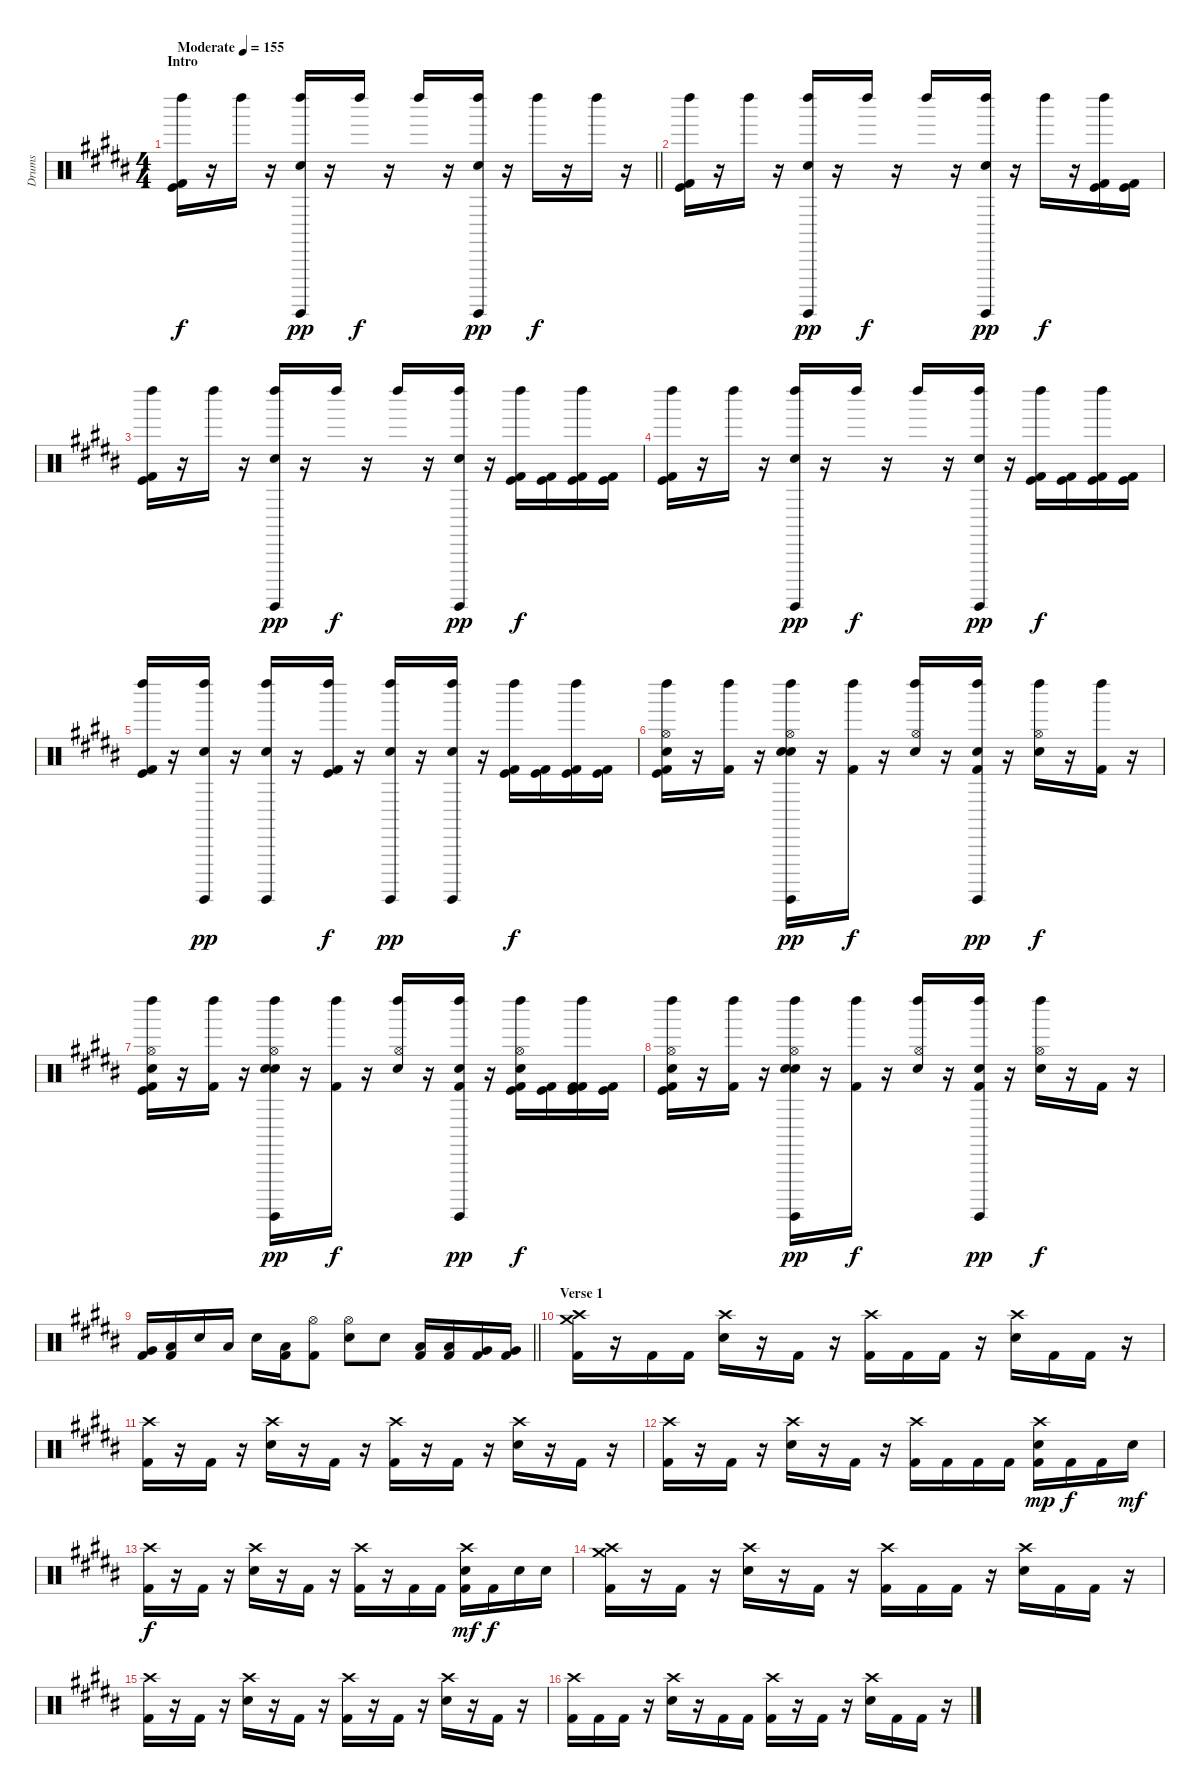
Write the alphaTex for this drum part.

\track ("Drums" "Drums") {instrument percussion}
\staff {score}
\articulation defaults
\ts (4 4)
\section ("" "Intro")
\tempo (155 "Moderate")
\clef neutral
\barLineRight lightlight
\ks g#minor
("Left Maraca (hit)" "Kick (hit)" "Kick (hit) 2").16{dy f} r.16 "Left Maraca (hit)".16 r.16 ("Snare (hit) 2" "Surdo (hit)" "Left Maraca (hit)").16{dy pp} r.16 "Left Maraca (hit)".16{dy f} r.16 "Left Maraca (hit)".16 r.16 ("Snare (hit) 2" "Surdo (hit)" "Left Maraca (hit)").16{dy pp} r.16 "Left Maraca (hit)".16{dy f} r.16 "Left Maraca (hit)".16 r.16 |
("Left Maraca (hit)" "Kick (hit)" "Kick (hit) 2").16 r.16 "Left Maraca (hit)".16 r.16 ("Snare (hit) 2" "Surdo (hit)" "Left Maraca (hit)").16{dy pp} r.16 "Left Maraca (hit)".16{dy f} r.16 "Left Maraca (hit)".16 r.16 ("Snare (hit) 2" "Surdo (hit)" "Left Maraca (hit)").16{dy pp} r.16 "Left Maraca (hit)".16{dy f} r.16 ("Left Maraca (hit)" "Kick (hit)" "Kick (hit) 2").16 ("Kick (hit)" "Kick (hit) 2").16 |
("Left Maraca (hit)" "Kick (hit)" "Kick (hit) 2").16 r.16 "Left Maraca (hit)".16 r.16 ("Snare (hit) 2" "Surdo (hit)" "Left Maraca (hit)").16{dy pp} r.16 "Left Maraca (hit)".16{dy f} r.16 "Left Maraca (hit)".16 r.16 ("Snare (hit) 2" "Surdo (hit)" "Left Maraca (hit)").16{dy pp} r.16 ("Left Maraca (hit)" "Kick (hit)" "Kick (hit) 2").16{dy f} ("Kick (hit)" "Kick (hit) 2").16 ("Left Maraca (hit)" "Kick (hit)" "Kick (hit) 2").16 ("Kick (hit)" "Kick (hit) 2").16 |
("Left Maraca (hit)" "Kick (hit)" "Kick (hit) 2").16 r.16 "Left Maraca (hit)".16 r.16 ("Snare (hit) 2" "Surdo (hit)" "Left Maraca (hit)").16{dy pp} r.16 "Left Maraca (hit)".16{dy f} r.16 "Left Maraca (hit)".16 r.16 ("Snare (hit) 2" "Surdo (hit)" "Left Maraca (hit)").16{dy pp} r.16 ("Left Maraca (hit)" "Kick (hit)" "Kick (hit) 2").16{dy f} ("Kick (hit)" "Kick (hit) 2").16 ("Left Maraca (hit)" "Kick (hit)" "Kick (hit) 2").16 ("Kick (hit)" "Kick (hit) 2").16 |
("Left Maraca (hit)" "Kick (hit)" "Kick (hit) 2").16 r.16 ("Snare (hit) 2" "Surdo (hit)" "Left Maraca (hit)").16{dy pp} r.16 ("Snare (hit) 2" "Surdo (hit)" "Left Maraca (hit)").16 r.16 ("Left Maraca (hit)" "Kick (hit)" "Kick (hit) 2").16{dy f} r.16 ("Snare (hit) 2" "Surdo (hit)" "Left Maraca (hit)").16{dy pp} r.16 ("Snare (hit) 2" "Surdo (hit)" "Left Maraca (hit)").16 r.16 ("Left Maraca (hit)" "Kick (hit)" "Kick (hit) 2").16{dy f} ("Kick (hit)" "Kick (hit) 2").16 ("Left Maraca (hit)" "Kick (hit)" "Kick (hit) 2").16 ("Kick (hit)" "Kick (hit) 2").16 |
("Hi-Hat (open)" "Electric Snare (hit)" "Left Maraca (hit)" "Kick (hit)" "Kick (hit) 2").16 r.16 ("Kick (hit) 2" "Left Maraca (hit)").16 r.16 ("Hi-Hat (open)" "Electric Snare (hit)" "Left Maraca (hit)" "Snare (hit) 2" "Surdo (hit)").16{dy pp} r.16 ("Kick (hit) 2" "Left Maraca (hit)").16{dy f} r.16 ("Hi-Hat (open)" "Electric Snare (hit)" "Left Maraca (hit)").16 r.16 ("Kick (hit) 2" "Left Maraca (hit)" "Snare (hit) 2" "Surdo (hit)").16{dy pp} r.16 ("Hi-Hat (open)" "Electric Snare (hit)" "Left Maraca (hit)").16{dy f} r.16 ("Kick (hit) 2" "Left Maraca (hit)").16 r.16 |
("Hi-Hat (open)" "Electric Snare (hit)" "Left Maraca (hit)" "Kick (hit)" "Kick (hit) 2").16 r.16 ("Kick (hit) 2" "Left Maraca (hit)").16 r.16 ("Hi-Hat (open)" "Electric Snare (hit)" "Left Maraca (hit)" "Snare (hit) 2" "Surdo (hit)").16{dy pp} r.16 ("Kick (hit) 2" "Left Maraca (hit)").16{dy f} r.16 ("Hi-Hat (open)" "Electric Snare (hit)" "Left Maraca (hit)").16 r.16 ("Kick (hit) 2" "Left Maraca (hit)" "Snare (hit) 2" "Surdo (hit)").16{dy pp} r.16 ("Hi-Hat (open)" "Electric Snare (hit)" "Left Maraca (hit)" "Kick (hit)" "Kick (hit) 2").16{dy f} ("Kick (hit)" "Kick (hit) 2").16 ("Kick (hit) 2" "Left Maraca (hit)" "Kick (hit)" "Kick (hit) 2").16 ("Kick (hit)" "Kick (hit) 2").16 |
("Hi-Hat (open)" "Electric Snare (hit)" "Left Maraca (hit)" "Kick (hit)" "Kick (hit) 2").16 r.16 ("Kick (hit) 2" "Left Maraca (hit)").16 r.16 ("Hi-Hat (open)" "Electric Snare (hit)" "Left Maraca (hit)" "Snare (hit) 2" "Surdo (hit)").16{dy pp} r.16 ("Kick (hit) 2" "Left Maraca (hit)").16{dy f} r.16 ("Hi-Hat (open)" "Electric Snare (hit)" "Left Maraca (hit)").16 r.16 ("Kick (hit) 2" "Left Maraca (hit)" "Snare (hit) 2" "Surdo (hit)").16{dy pp} r.16 ("Hi-Hat (open)" "Electric Snare (hit)" "Left Maraca (hit)").16{dy f} r.16 "Kick (hit) 2".16 r.16 |
\barLineRight lightlight
("Very Low Tom (hit)" "Kick (hit) 2").16 ("Low Tom (hit)" "Kick (hit) 2").16 "Electric Snare (hit)".16 "Low Tom (hit)".16 "Electric Snare (hit)".16 ("Low Tom (hit)" "Kick (hit) 2").16 ("Hi-Hat (open)" "Kick (hit) 2").8 ("Hi-Hat (open)" "Electric Snare (hit)").8 "Electric Snare (hit)".8 ("Low Tom (hit)" "Kick (hit) 2").16 ("Low Tom (hit)" "Kick (hit) 2").16 ("Very Low Tom (hit)" "Kick (hit) 2").16 ("Very Low Tom (hit)" "Kick (hit) 2").16 |
\section ("" "Verse 1")
("Crash high (hit)" "Crash medium (hit)" "Kick (hit) 2").16 r.16 "Kick (hit) 2".16 "Kick (hit) 2".16 ("Crash high (hit)" "Electric Snare (hit)").16 r.16 "Kick (hit) 2".16 r.16 ("Crash high (hit)" "Kick (hit) 2").16 "Kick (hit) 2".16 "Kick (hit) 2".16 r.16 ("Crash high (hit)" "Electric Snare (hit)").16 "Kick (hit) 2".16 "Kick (hit) 2".16 r.16 |
("Crash high (hit)" "Kick (hit) 2").16 r.16 "Kick (hit) 2".16 r.16 ("Crash high (hit)" "Electric Snare (hit)").16 r.16 "Kick (hit) 2".16 r.16 ("Crash high (hit)" "Kick (hit) 2").16 r.16 "Kick (hit) 2".16 r.16 ("Crash high (hit)" "Electric Snare (hit)").16 r.16 "Kick (hit) 2".16 r.16 |
("Crash high (hit)" "Kick (hit) 2").16 r.16 "Kick (hit) 2".16 r.16 ("Crash high (hit)" "Electric Snare (hit)").16 r.16 "Kick (hit) 2".16 r.16 ("Crash high (hit)" "Kick (hit) 2").16 "Kick (hit) 2".16 "Kick (hit) 2".16 "Kick (hit) 2".16 ("Crash high (hit)" "Electric Snare (hit)" "Kick (hit) 2").16{dy mp} "Kick (hit) 2".16{dy f} "Kick (hit) 2".16 "Electric Snare (hit)".16{dy mf} |
("Crash high (hit)" "Kick (hit) 2").16{dy f} r.16 "Kick (hit) 2".16 r.16 ("Crash high (hit)" "Electric Snare (hit)").16 r.16 "Kick (hit) 2".16 r.16 ("Crash high (hit)" "Kick (hit) 2").16 r.16 "Kick (hit) 2".16 "Kick (hit) 2".16 ("Crash high (hit)" "Electric Snare (hit)" "Kick (hit) 2").16{dy mf} "Kick (hit) 2".16{dy f} "Electric Snare (hit)".16 "Electric Snare (hit)".16 |
("Crash high (hit)" "Crash medium (hit)" "Kick (hit) 2").16 r.16 "Kick (hit) 2".16 r.16 ("Crash high (hit)" "Electric Snare (hit)").16 r.16 "Kick (hit) 2".16 r.16 ("Crash high (hit)" "Kick (hit) 2").16 "Kick (hit) 2".16 "Kick (hit) 2".16 r.16 ("Crash high (hit)" "Electric Snare (hit)").16 "Kick (hit) 2".16 "Kick (hit) 2".16 r.16 |
("Crash high (hit)" "Kick (hit) 2").16 r.16 "Kick (hit) 2".16 r.16 ("Crash high (hit)" "Electric Snare (hit)").16 r.16 "Kick (hit) 2".16 r.16 ("Crash high (hit)" "Kick (hit) 2").16 r.16 "Kick (hit) 2".16 r.16 ("Crash high (hit)" "Electric Snare (hit)").16 r.16 "Kick (hit) 2".16 r.16 |
("Crash high (hit)" "Kick (hit) 2").16 "Kick (hit) 2".16 "Kick (hit) 2".16 r.16 ("Crash high (hit)" "Electric Snare (hit)").16 r.16 "Kick (hit) 2".16 "Kick (hit) 2".16 ("Crash high (hit)" "Kick (hit) 2").16 r.16 "Kick (hit) 2".16 r.16 ("Crash high (hit)" "Electric Snare (hit)").16 "Kick (hit) 2".16 "Kick (hit) 2".16 r.16
